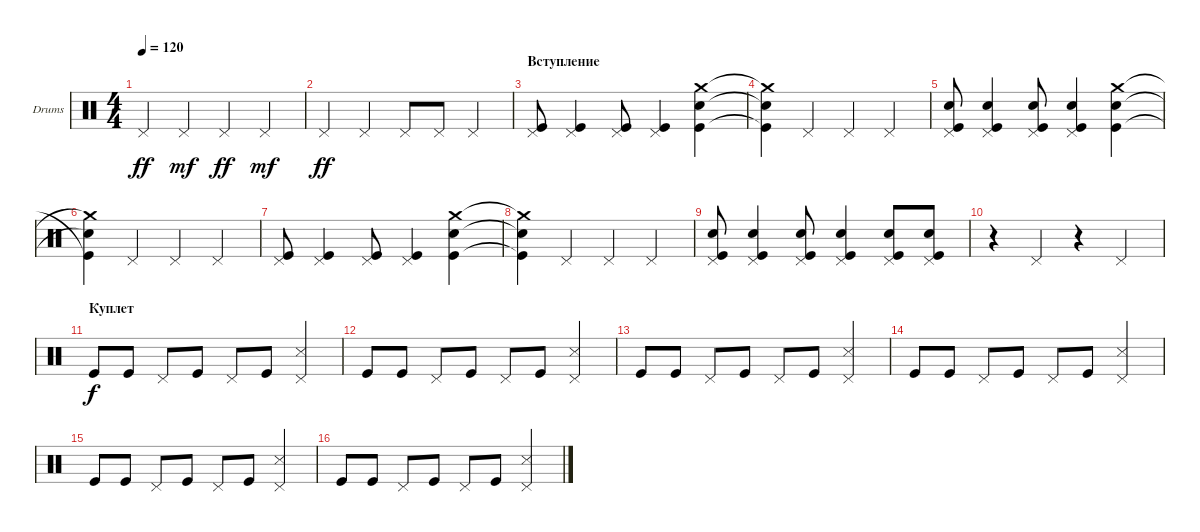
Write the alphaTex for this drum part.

\defaultSystemsLayout 4
\bracketExtendMode groupsimilarinstruments
\firstSystemTrackNameOrientation horizontal
\otherSystemsTrackNameOrientation horizontal
\track ("Е. Кулаков" "Drums") {instrument percussion}
\staff {score}
\articulation defaults
\ts (4 4)
\tempo 120
\clef neutral
\scale
0.474178
\ks c "Pedal Hi-Hat (hit)".4{dy ff} "Pedal Hi-Hat (hit)".4{dy mf} "Pedal Hi-Hat (hit)".4{dy ff} "Pedal Hi-Hat (hit)".4{dy mf}
|
\scale
0.262911 "Pedal Hi-Hat (hit)".4{dy ff} "Pedal Hi-Hat (hit)".4 "Pedal Hi-Hat (hit)".8 "Pedal Hi-Hat (hit)".8 "Pedal Hi-Hat (hit)".4 |
\section ("" "Вступление")
\scale
0.262911 ("Kick (hit)" "Pedal Hi-Hat (hit)").8 ("Kick (hit)" "Pedal Hi-Hat (hit)").4 ("Kick (hit)" "Pedal Hi-Hat (hit)").8 ("Kick (hit)" "Pedal Hi-Hat (hit)").4 ("Snare (hit) 2" "Kick (hit)" "Crash medium (hit)").4 |
\scale
0.333333 ("Snare (hit) 2"{t} "Kick (hit)"{t} "Crash medium (hit)"{t}).4 "Pedal Hi-Hat (hit)".4 "Pedal Hi-Hat (hit)".4 "Pedal Hi-Hat (hit)".4 |
\scale
0.333333 ("Pedal Hi-Hat (hit)" "Snare (hit) 2" "Kick (hit)").8 ("Pedal Hi-Hat (hit)" "Snare (hit) 2" "Kick (hit)").4 ("Pedal Hi-Hat (hit)" "Snare (hit) 2" "Kick (hit)").8 ("Pedal Hi-Hat (hit)" "Snare (hit) 2" "Kick (hit)").4 ("Kick (hit)" "Crash medium (hit)" "Snare (hit) 2").4 |
\scale
0.333333 ("Snare (hit) 2"{t} "Kick (hit)"{t} "Crash medium (hit)"{t}).4 "Pedal Hi-Hat (hit)".4 "Pedal Hi-Hat (hit)".4 "Pedal Hi-Hat (hit)".4 |
\scale
0.333333 ("Kick (hit)" "Pedal Hi-Hat (hit)").8 ("Kick (hit)" "Pedal Hi-Hat (hit)").4 ("Kick (hit)" "Pedal Hi-Hat (hit)").8 ("Kick (hit)" "Pedal Hi-Hat (hit)").4 ("Snare (hit) 2" "Kick (hit)" "Crash medium (hit)").4 |
\scale
0.333333 ("Snare (hit) 2"{t} "Kick (hit)"{t} "Crash medium (hit)"{t}).4 "Pedal Hi-Hat (hit)".4 "Pedal Hi-Hat (hit)".4 "Pedal Hi-Hat (hit)".4 |
\scale
0.333333 ("Pedal Hi-Hat (hit)" "Snare (hit) 2" "Kick (hit)").8 ("Pedal Hi-Hat (hit)" "Snare (hit) 2" "Kick (hit)").4 ("Pedal Hi-Hat (hit)" "Snare (hit) 2" "Kick (hit)").8 ("Pedal Hi-Hat (hit)" "Snare (hit) 2" "Kick (hit)").4 ("Pedal Hi-Hat (hit)" "Snare (hit) 2" "Kick (hit)").8 ("Pedal Hi-Hat (hit)" "Snare (hit) 2" "Kick (hit)").8 |
r.4 "Pedal Hi-Hat (hit)".4 r.4 "Pedal Hi-Hat (hit)".4 |
\section ("" "Куплет")
"Kick (hit)".8{dy f} "Kick (hit)".8 "Pedal Hi-Hat (hit)".8 "Kick (hit)".8 "Pedal Hi-Hat (hit)".8 "Kick (hit)".8 ("Pedal Hi-Hat (hit)" "Snare (side stick) 3").4 |
"Kick (hit)".8 "Kick (hit)".8 "Pedal Hi-Hat (hit)".8 "Kick (hit)".8 "Pedal Hi-Hat (hit)".8 "Kick (hit)".8 ("Pedal Hi-Hat (hit)" "Snare (side stick) 3").4 |
"Kick (hit)".8 "Kick (hit)".8 "Pedal Hi-Hat (hit)".8 "Kick (hit)".8 "Pedal Hi-Hat (hit)".8 "Kick (hit)".8 ("Pedal Hi-Hat (hit)" "Snare (side stick) 3").4 |
"Kick (hit)".8 "Kick (hit)".8 "Pedal Hi-Hat (hit)".8 "Kick (hit)".8 "Pedal Hi-Hat (hit)".8 "Kick (hit)".8 ("Pedal Hi-Hat (hit)" "Snare (side stick) 3").4 |
"Kick (hit)".8 "Kick (hit)".8 "Pedal Hi-Hat (hit)".8 "Kick (hit)".8 "Pedal Hi-Hat (hit)".8 "Kick (hit)".8 ("Pedal Hi-Hat (hit)" "Snare (side stick) 3").4 |
"Kick (hit)".8 "Kick (hit)".8 "Pedal Hi-Hat (hit)".8 "Kick (hit)".8 "Pedal Hi-Hat (hit)".8 "Kick (hit)".8 ("Pedal Hi-Hat (hit)" "Snare (side stick) 3").4
